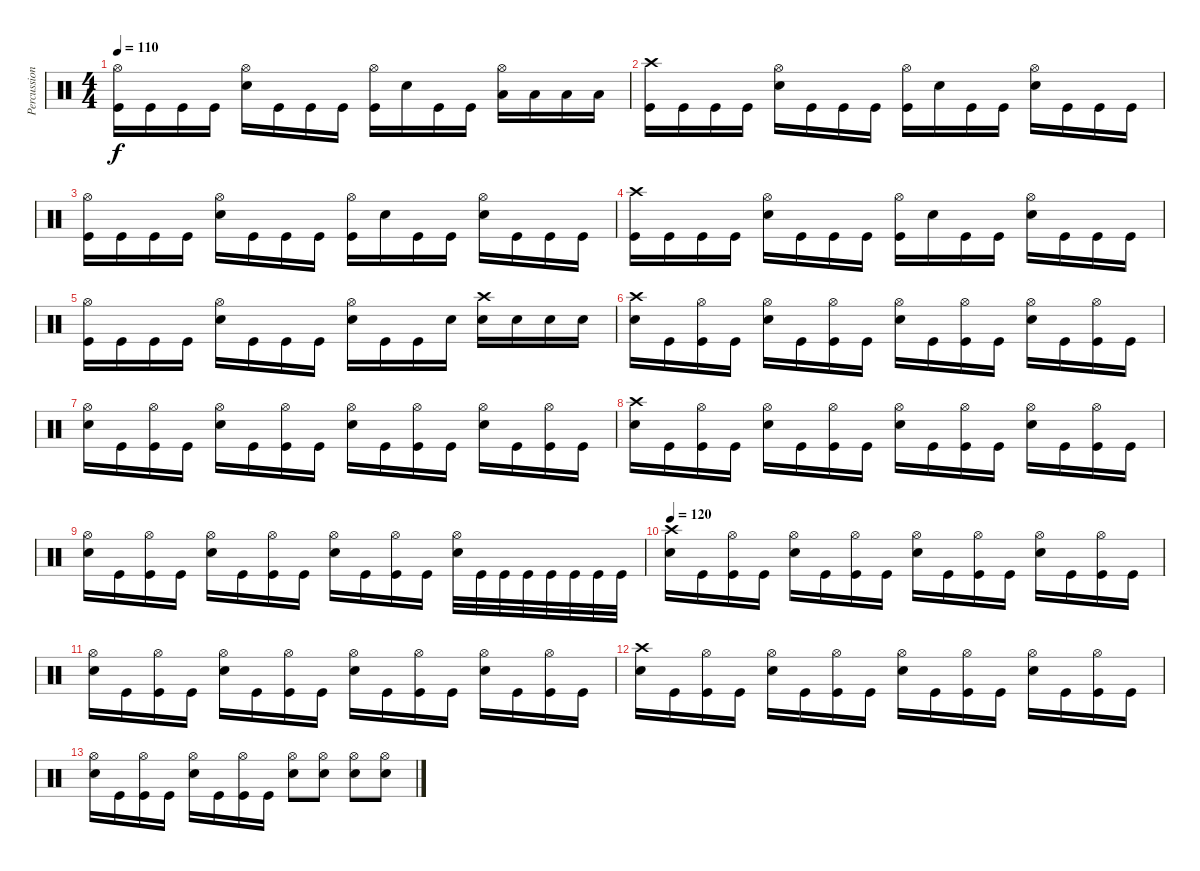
\track ("Percussion" "Percussion") {instrument percussion}
\staff {score}
\articulation defaults
\ts (4 4)
\tempo 110
\clef neutral
\ks c
("Kick (hit)" "Hi-Hat (open)").16{dy f} "Kick (hit)".16 "Kick (hit)".16 "Kick (hit)".16 ("Electric Snare (hit)" "Hi-Hat (open)").16 "Kick (hit)".16 "Kick (hit)".16 "Kick (hit)".16 ("Kick (hit)" "Hi-Hat (open)").16 "Electric Snare (hit)".16 "Kick (hit)".16 "Kick (hit)".16 ("Low Tom (hit)" "Hi-Hat (open)").16 "Low Tom (hit)".16 "Low Tom (hit)".16 "Low Tom (hit)".16 |
("Kick (hit)" "Crash high (hit)").16 "Kick (hit)".16 "Kick (hit)".16 "Kick (hit)".16 ("Electric Snare (hit)" "Hi-Hat (open)").16 "Kick (hit)".16 "Kick (hit)".16 "Kick (hit)".16 ("Kick (hit)" "Hi-Hat (open)").16 "Electric Snare (hit)".16 "Kick (hit)".16 "Kick (hit)".16 ("Electric Snare (hit)" "Hi-Hat (open)").16 "Kick (hit)".16 "Kick (hit)".16 "Kick (hit)".16 |
("Kick (hit)" "Hi-Hat (open)").16 "Kick (hit)".16 "Kick (hit)".16 "Kick (hit)".16 ("Electric Snare (hit)" "Hi-Hat (open)").16 "Kick (hit)".16 "Kick (hit)".16 "Kick (hit)".16 ("Kick (hit)" "Hi-Hat (open)").16 "Electric Snare (hit)".16 "Kick (hit)".16 "Kick (hit)".16 ("Electric Snare (hit)" "Hi-Hat (open)").16 "Kick (hit)".16 "Kick (hit)".16 "Kick (hit)".16 |
("Kick (hit)" "Crash high (hit)").16 "Kick (hit)".16 "Kick (hit)".16 "Kick (hit)".16 ("Electric Snare (hit)" "Hi-Hat (open)").16 "Kick (hit)".16 "Kick (hit)".16 "Kick (hit)".16 ("Kick (hit)" "Hi-Hat (open)").16 "Electric Snare (hit)".16 "Kick (hit)".16 "Kick (hit)".16 ("Electric Snare (hit)" "Hi-Hat (open)").16 "Kick (hit)".16 "Kick (hit)".16 "Kick (hit)".16 |
("Kick (hit)" "Hi-Hat (open)").16 "Kick (hit)".16 "Kick (hit)".16 "Kick (hit)".16 ("Electric Snare (hit)" "Hi-Hat (open)").16 "Kick (hit)".16 "Kick (hit)".16 "Kick (hit)".16 ("Electric Snare (hit)" "Hi-Hat (open)").16 "Kick (hit)".16 "Kick (hit)".16 "Electric Snare (hit)".16 ("Electric Snare (hit)" "Crash high (hit)").16 "Electric Snare (hit)".16 "Electric Snare (hit)".16 "Electric Snare (hit)".16 |
("Electric Snare (hit)" "Crash high (hit)").16 "Kick (hit)".16 ("Kick (hit)" "Hi-Hat (open)").16 "Kick (hit)".16 ("Electric Snare (hit)" "Hi-Hat (open)").16 "Kick (hit)".16 ("Kick (hit)" "Hi-Hat (open)").16 "Kick (hit)".16 ("Electric Snare (hit)" "Hi-Hat (open)").16 "Kick (hit)".16 ("Kick (hit)" "Hi-Hat (open)").16 "Kick (hit)".16 ("Electric Snare (hit)" "Hi-Hat (open)").16 "Kick (hit)".16 ("Kick (hit)" "Hi-Hat (open)").16 "Kick (hit)".16 |
("Electric Snare (hit)" "Hi-Hat (open)").16 "Kick (hit)".16 ("Kick (hit)" "Hi-Hat (open)").16 "Kick (hit)".16 ("Electric Snare (hit)" "Hi-Hat (open)").16 "Kick (hit)".16 ("Kick (hit)" "Hi-Hat (open)").16 "Kick (hit)".16 ("Electric Snare (hit)" "Hi-Hat (open)").16 "Kick (hit)".16 ("Kick (hit)" "Hi-Hat (open)").16 "Kick (hit)".16 ("Electric Snare (hit)" "Hi-Hat (open)").16 "Kick (hit)".16 ("Kick (hit)" "Hi-Hat (open)").16 "Kick (hit)".16 |
("Electric Snare (hit)" "Crash high (hit)").16 "Kick (hit)".16 ("Kick (hit)" "Hi-Hat (open)").16 "Kick (hit)".16 ("Electric Snare (hit)" "Hi-Hat (open)").16 "Kick (hit)".16 ("Kick (hit)" "Hi-Hat (open)").16 "Kick (hit)".16 ("Electric Snare (hit)" "Hi-Hat (open)").16 "Kick (hit)".16 ("Kick (hit)" "Hi-Hat (open)").16 "Kick (hit)".16 ("Electric Snare (hit)" "Hi-Hat (open)").16 "Kick (hit)".16 ("Kick (hit)" "Hi-Hat (open)").16 "Kick (hit)".16 |
("Electric Snare (hit)" "Hi-Hat (open)").16 "Kick (hit)".16 ("Kick (hit)" "Hi-Hat (open)").16 "Kick (hit)".16 ("Electric Snare (hit)" "Hi-Hat (open)").16 "Kick (hit)".16 ("Kick (hit)" "Hi-Hat (open)").16 "Kick (hit)".16 ("Electric Snare (hit)" "Hi-Hat (open)").16 "Kick (hit)".16 ("Kick (hit)" "Hi-Hat (open)").16 "Kick (hit)".16 ("Electric Snare (hit)" "Hi-Hat (open)").32 "Kick (hit)".32 "Kick (hit)".32 "Kick (hit)".32 "Kick (hit)".32 "Kick (hit)".32 "Kick (hit)".32 "Kick (hit)".32 |
\tempo 120
("Electric Snare (hit)" "Crash high (hit)").16 "Kick (hit)".16 ("Kick (hit)" "Hi-Hat (open)").16 "Kick (hit)".16 ("Electric Snare (hit)" "Hi-Hat (open)").16 "Kick (hit)".16 ("Kick (hit)" "Hi-Hat (open)").16 "Kick (hit)".16 ("Electric Snare (hit)" "Hi-Hat (open)").16 "Kick (hit)".16 ("Kick (hit)" "Hi-Hat (open)").16 "Kick (hit)".16 ("Electric Snare (hit)" "Hi-Hat (open)").16 "Kick (hit)".16 ("Kick (hit)" "Hi-Hat (open)").16 "Kick (hit)".16 |
("Electric Snare (hit)" "Hi-Hat (open)").16 "Kick (hit)".16 ("Kick (hit)" "Hi-Hat (open)").16 "Kick (hit)".16 ("Electric Snare (hit)" "Hi-Hat (open)").16 "Kick (hit)".16 ("Kick (hit)" "Hi-Hat (open)").16 "Kick (hit)".16 ("Electric Snare (hit)" "Hi-Hat (open)").16 "Kick (hit)".16 ("Kick (hit)" "Hi-Hat (open)").16 "Kick (hit)".16 ("Electric Snare (hit)" "Hi-Hat (open)").16 "Kick (hit)".16 ("Kick (hit)" "Hi-Hat (open)").16 "Kick (hit)".16 |
("Electric Snare (hit)" "Crash high (hit)").16 "Kick (hit)".16 ("Kick (hit)" "Hi-Hat (open)").16 "Kick (hit)".16 ("Electric Snare (hit)" "Hi-Hat (open)").16 "Kick (hit)".16 ("Kick (hit)" "Hi-Hat (open)").16 "Kick (hit)".16 ("Electric Snare (hit)" "Hi-Hat (open)").16 "Kick (hit)".16 ("Kick (hit)" "Hi-Hat (open)").16 "Kick (hit)".16 ("Electric Snare (hit)" "Hi-Hat (open)").16 "Kick (hit)".16 ("Kick (hit)" "Hi-Hat (open)").16 "Kick (hit)".16 |
("Electric Snare (hit)" "Hi-Hat (open)").16 "Kick (hit)".16 ("Kick (hit)" "Hi-Hat (open)").16 "Kick (hit)".16 ("Electric Snare (hit)" "Hi-Hat (open)").16 "Kick (hit)".16 ("Kick (hit)" "Hi-Hat (open)").16 "Kick (hit)".16 ("Electric Snare (hit)" "Hi-Hat (open)").8 ("Electric Snare (hit)" "Hi-Hat (open)").8 ("Electric Snare (hit)" "Hi-Hat (open)").8 ("Electric Snare (hit)" "Hi-Hat (open)").8
